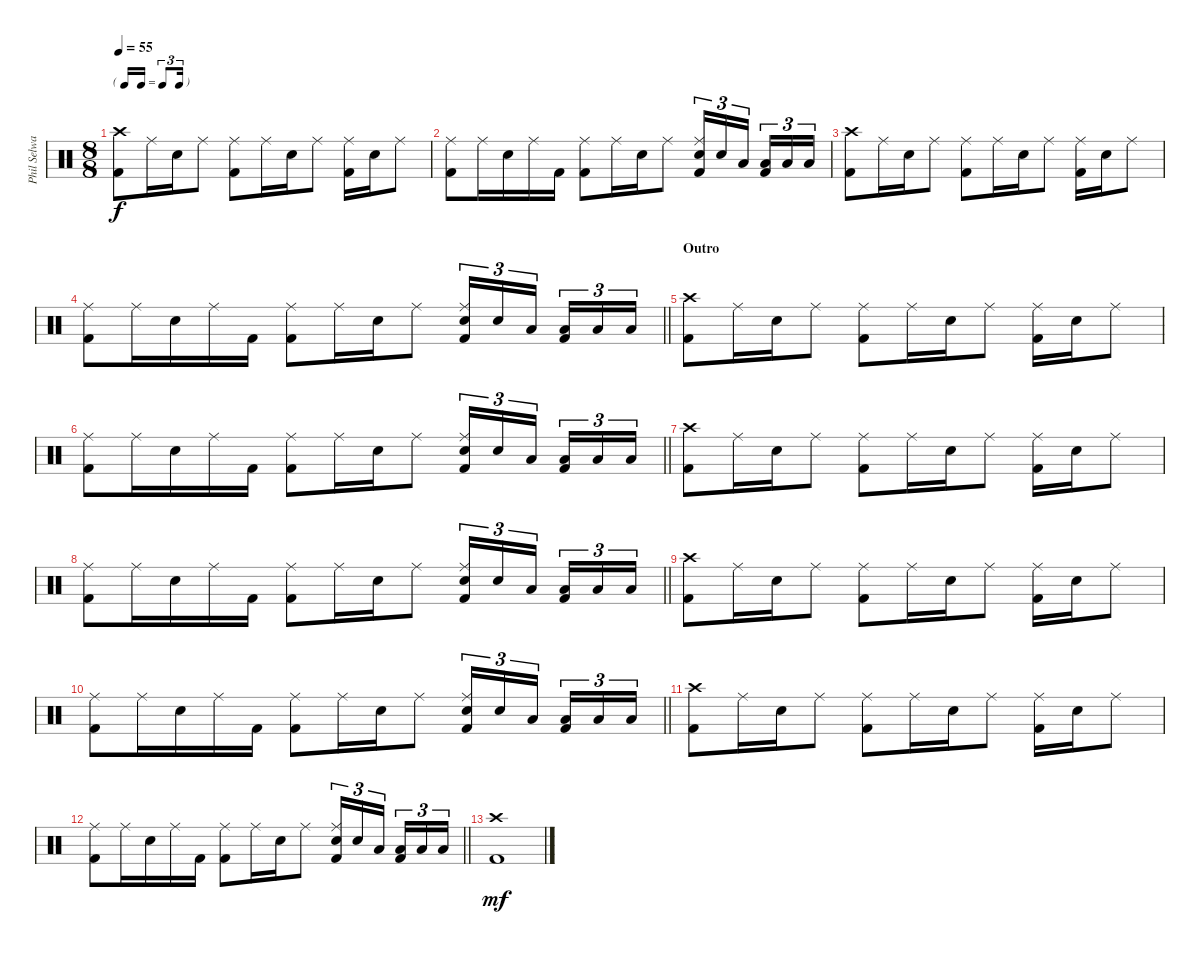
\track ("Phil Selway(drums)" "Phil Selwa") {instrument percussion}
\staff {score}
\articulation defaults
\ts (8 8)
\tf triplet16th
\tempo 55
\clef neutral
\ks c
("Crash high (hit)" "Kick (hit) 2").8{dy f} "Ride (middle)".16 "Snare (hit) 2".16 "Ride (middle)".8 ("Ride (middle)" "Kick (hit) 2").8 "Ride (middle)".16 "Snare (hit) 2".16 "Ride (middle)".8 ("Ride (middle)" "Kick (hit) 2").16 "Snare (hit) 2".16 "Ride (middle)".8 |
("Ride (middle)" "Kick (hit) 2").8 "Ride (middle)".16 "Snare (hit) 2".16 "Ride (middle)".16 "Kick (hit) 2".16 ("Ride (middle)" "Kick (hit) 2").8 "Ride (middle)".16 "Snare (hit) 2".16 "Ride (middle)".8 ("Ride (middle)" "Snare (hit) 2" "Kick (hit) 2").16{tu (3 2)} "Snare (hit) 2".16{tu (3 2)} "Low Tom (hit)".16{tu (3 2)} ("Low Tom (hit)" "Kick (hit) 2").16{tu (3 2)} "Low Floor Tom (hit)".16{tu (3 2)} "Low Floor Tom (hit)".16{tu (3 2)} |
("Crash high (hit)" "Kick (hit) 2").8 "Ride (middle)".16 "Snare (hit) 2".16 "Ride (middle)".8 ("Ride (middle)" "Kick (hit) 2").8 "Ride (middle)".16 "Snare (hit) 2".16 "Ride (middle)".8 ("Ride (middle)" "Kick (hit) 2").16 "Snare (hit) 2".16 "Ride (middle)".8 |
\barLineRight lightlight
("Ride (middle)" "Kick (hit) 2").8 "Ride (middle)".16 "Snare (hit) 2".16 "Ride (middle)".16 "Kick (hit) 2".16 ("Ride (middle)" "Kick (hit) 2").8 "Ride (middle)".16 "Snare (hit) 2".16 "Ride (middle)".8 ("Ride (middle)" "Snare (hit) 2" "Kick (hit) 2").16{tu (3 2)} "Snare (hit) 2".16{tu (3 2)} "Low Tom (hit)".16{tu (3 2)} ("Low Tom (hit)" "Kick (hit) 2").16{tu (3 2)} "Low Floor Tom (hit)".16{tu (3 2)} "Low Floor Tom (hit)".16{tu (3 2)} |
\section ("" "Outro")
("Crash high (hit)" "Kick (hit) 2").8 "Ride (middle)".16 "Snare (hit) 2".16 "Ride (middle)".8 ("Ride (middle)" "Kick (hit) 2").8 "Ride (middle)".16 "Snare (hit) 2".16 "Ride (middle)".8 ("Ride (middle)" "Kick (hit) 2").16 "Snare (hit) 2".16 "Ride (middle)".8 |
\barLineRight lightlight
("Ride (middle)" "Kick (hit) 2").8 "Ride (middle)".16 "Snare (hit) 2".16 "Ride (middle)".16 "Kick (hit) 2".16 ("Ride (middle)" "Kick (hit) 2").8 "Ride (middle)".16 "Snare (hit) 2".16 "Ride (middle)".8 ("Ride (middle)" "Snare (hit) 2" "Kick (hit) 2").16{tu (3 2)} "Snare (hit) 2".16{tu (3 2)} "Low Tom (hit)".16{tu (3 2)} ("Low Tom (hit)" "Kick (hit) 2").16{tu (3 2)} "Low Floor Tom (hit)".16{tu (3 2)} "Low Floor Tom (hit)".16{tu (3 2)} |
("Crash high (hit)" "Kick (hit) 2").8 "Ride (middle)".16 "Snare (hit) 2".16 "Ride (middle)".8 ("Ride (middle)" "Kick (hit) 2").8 "Ride (middle)".16 "Snare (hit) 2".16 "Ride (middle)".8 ("Ride (middle)" "Kick (hit) 2").16 "Snare (hit) 2".16 "Ride (middle)".8 |
\barLineRight lightlight
("Ride (middle)" "Kick (hit) 2").8 "Ride (middle)".16 "Snare (hit) 2".16 "Ride (middle)".16 "Kick (hit) 2".16 ("Ride (middle)" "Kick (hit) 2").8 "Ride (middle)".16 "Snare (hit) 2".16 "Ride (middle)".8 ("Ride (middle)" "Snare (hit) 2" "Kick (hit) 2").16{tu (3 2)} "Snare (hit) 2".16{tu (3 2)} "Low Tom (hit)".16{tu (3 2)} ("Low Tom (hit)" "Kick (hit) 2").16{tu (3 2)} "Low Floor Tom (hit)".16{tu (3 2)} "Low Floor Tom (hit)".16{tu (3 2)} |
("Crash high (hit)" "Kick (hit) 2").8 "Ride (middle)".16 "Snare (hit) 2".16 "Ride (middle)".8 ("Ride (middle)" "Kick (hit) 2").8 "Ride (middle)".16 "Snare (hit) 2".16 "Ride (middle)".8 ("Ride (middle)" "Kick (hit) 2").16 "Snare (hit) 2".16 "Ride (middle)".8 |
\barLineRight lightlight
("Ride (middle)" "Kick (hit) 2").8 "Ride (middle)".16 "Snare (hit) 2".16 "Ride (middle)".16 "Kick (hit) 2".16 ("Ride (middle)" "Kick (hit) 2").8 "Ride (middle)".16 "Snare (hit) 2".16 "Ride (middle)".8 ("Ride (middle)" "Snare (hit) 2" "Kick (hit) 2").16{tu (3 2)} "Snare (hit) 2".16{tu (3 2)} "Low Tom (hit)".16{tu (3 2)} ("Low Tom (hit)" "Kick (hit) 2").16{tu (3 2)} "Low Floor Tom (hit)".16{tu (3 2)} "Low Floor Tom (hit)".16{tu (3 2)} |
("Crash high (hit)" "Kick (hit) 2").8 "Ride (middle)".16 "Snare (hit) 2".16 "Ride (middle)".8 ("Ride (middle)" "Kick (hit) 2").8 "Ride (middle)".16 "Snare (hit) 2".16 "Ride (middle)".8 ("Ride (middle)" "Kick (hit) 2").16 "Snare (hit) 2".16 "Ride (middle)".8 |
\barLineRight lightlight
("Ride (middle)" "Kick (hit) 2").8 "Ride (middle)".16 "Snare (hit) 2".16 "Ride (middle)".16 "Kick (hit) 2".16 ("Ride (middle)" "Kick (hit) 2").8 "Ride (middle)".16 "Snare (hit) 2".16 "Ride (middle)".8 ("Ride (middle)" "Snare (hit) 2" "Kick (hit) 2").16{tu (3 2)} "Snare (hit) 2".16{tu (3 2)} "Low Tom (hit)".16{tu (3 2)} ("Low Tom (hit)" "Kick (hit) 2").16{tu (3 2)} "Low Floor Tom (hit)".16{tu (3 2)} "Low Floor Tom (hit)".16{tu (3 2)} |
("Crash high (hit)" "Kick (hit) 2").1{dy mf}
